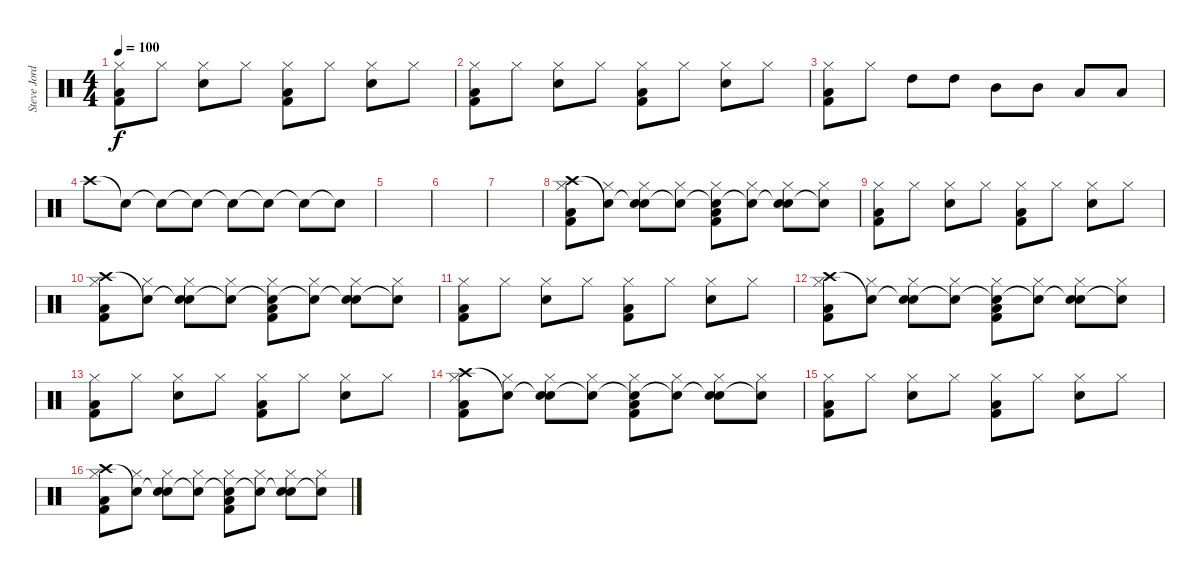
\track ("Steve Jordan" "Steve Jord") {instrument percussion}
\staff {score}
\articulation defaults
\ts (4 4)
\tempo 100
\clef neutral
\ks c
("Hi-Hat (closed)" "Low Floor Tom (hit)" "Kick (hit) 2").8{dy f} "Hi-Hat (closed)".8 ("Hi-Hat (closed)" "Snare (hit) 2").8 "Hi-Hat (closed)".8 ("Hi-Hat (closed)" "Low Floor Tom (hit)" "Kick (hit) 2").8 "Hi-Hat (closed)".8 ("Hi-Hat (closed)" "Snare (hit) 2").8 "Hi-Hat (closed)".8 |
("Hi-Hat (closed)" "Low Floor Tom (hit)" "Kick (hit) 2").8 "Hi-Hat (closed)".8 ("Hi-Hat (closed)" "Snare (hit) 2").8 "Hi-Hat (closed)".8 ("Hi-Hat (closed)" "Low Floor Tom (hit)" "Kick (hit) 2").8 "Hi-Hat (closed)".8 ("Hi-Hat (closed)" "Snare (hit) 2").8 "Hi-Hat (closed)".8 |
("Hi-Hat (closed)" "Low Floor Tom (hit)" "Kick (hit) 2").8 "Hi-Hat (closed)".8 "High Tom (hit)".8 "High Tom (hit)".8 "Mid Tom (hit)".8 "Mid Tom (hit)".8 "Low Tom (hit)".8 "Low Tom (hit)".8 |
"Crash high (hit)".8 "Snare (hit)"{t}.8 "Snare (hit)"{t}.8 "Snare (hit)"{t}.8 "Snare (hit)"{t}.8 "Snare (hit)"{t}.8 "Snare (hit)"{t}.8 "Snare (hit)"{t}.8 |
|
|
|
("Crash high (hit)" "Hi-Hat (closed)" "Low Floor Tom (hit)" "Kick (hit) 2").8 ("Snare (hit)"{t} "Hi-Hat (closed)").8 ("Snare (hit)"{t} "Hi-Hat (closed)" "Snare (hit) 2").8 ("Snare (hit)"{t} "Hi-Hat (closed)").8 ("Snare (hit)"{t} "Hi-Hat (closed)" "Low Floor Tom (hit)" "Kick (hit) 2").8 ("Snare (hit)"{t} "Hi-Hat (closed)").8 ("Snare (hit)"{t} "Hi-Hat (closed)" "Snare (hit) 2").8 ("Snare (hit)"{t} "Hi-Hat (closed)").8 |
("Hi-Hat (closed)" "Low Floor Tom (hit)" "Kick (hit) 2").8 "Hi-Hat (closed)".8 ("Hi-Hat (closed)" "Snare (hit) 2").8 "Hi-Hat (closed)".8 ("Hi-Hat (closed)" "Low Floor Tom (hit)" "Kick (hit) 2").8 "Hi-Hat (closed)".8 ("Hi-Hat (closed)" "Snare (hit) 2").8 "Hi-Hat (closed)".8 |
("Crash high (hit)" "Hi-Hat (closed)" "Low Floor Tom (hit)" "Kick (hit) 2").8 ("Snare (hit)"{t} "Hi-Hat (closed)").8 ("Snare (hit)"{t} "Hi-Hat (closed)" "Snare (hit) 2").8 ("Snare (hit)"{t} "Hi-Hat (closed)").8 ("Snare (hit)"{t} "Hi-Hat (closed)" "Low Floor Tom (hit)" "Kick (hit) 2").8 ("Snare (hit)"{t} "Hi-Hat (closed)").8 ("Snare (hit)"{t} "Hi-Hat (closed)" "Snare (hit) 2").8 ("Snare (hit)"{t} "Hi-Hat (closed)").8 |
("Hi-Hat (closed)" "Low Floor Tom (hit)" "Kick (hit) 2").8 "Hi-Hat (closed)".8 ("Hi-Hat (closed)" "Snare (hit) 2").8 "Hi-Hat (closed)".8 ("Hi-Hat (closed)" "Low Floor Tom (hit)" "Kick (hit) 2").8 "Hi-Hat (closed)".8 ("Hi-Hat (closed)" "Snare (hit) 2").8 "Hi-Hat (closed)".8 |
("Crash high (hit)" "Hi-Hat (closed)" "Low Floor Tom (hit)" "Kick (hit) 2").8 ("Snare (hit)"{t} "Hi-Hat (closed)").8 ("Snare (hit)"{t} "Hi-Hat (closed)" "Snare (hit) 2").8 ("Snare (hit)"{t} "Hi-Hat (closed)").8 ("Snare (hit)"{t} "Hi-Hat (closed)" "Low Floor Tom (hit)" "Kick (hit) 2").8 ("Snare (hit)"{t} "Hi-Hat (closed)").8 ("Snare (hit)"{t} "Hi-Hat (closed)" "Snare (hit) 2").8 ("Snare (hit)"{t} "Hi-Hat (closed)").8 |
("Hi-Hat (closed)" "Low Floor Tom (hit)" "Kick (hit) 2").8 "Hi-Hat (closed)".8 ("Hi-Hat (closed)" "Snare (hit) 2").8 "Hi-Hat (closed)".8 ("Hi-Hat (closed)" "Low Floor Tom (hit)" "Kick (hit) 2").8 "Hi-Hat (closed)".8 ("Hi-Hat (closed)" "Snare (hit) 2").8 "Hi-Hat (closed)".8 |
("Crash high (hit)" "Hi-Hat (closed)" "Low Floor Tom (hit)" "Kick (hit) 2").8 ("Snare (hit)"{t} "Hi-Hat (closed)").8 ("Snare (hit)"{t} "Hi-Hat (closed)" "Snare (hit) 2").8 ("Snare (hit)"{t} "Hi-Hat (closed)").8 ("Snare (hit)"{t} "Hi-Hat (closed)" "Low Floor Tom (hit)" "Kick (hit) 2").8 ("Snare (hit)"{t} "Hi-Hat (closed)").8 ("Snare (hit)"{t} "Hi-Hat (closed)" "Snare (hit) 2").8 ("Snare (hit)"{t} "Hi-Hat (closed)").8 |
("Hi-Hat (closed)" "Low Floor Tom (hit)" "Kick (hit) 2").8 "Hi-Hat (closed)".8 ("Hi-Hat (closed)" "Snare (hit) 2").8 "Hi-Hat (closed)".8 ("Hi-Hat (closed)" "Low Floor Tom (hit)" "Kick (hit) 2").8 "Hi-Hat (closed)".8 ("Hi-Hat (closed)" "Snare (hit) 2").8 "Hi-Hat (closed)".8 |
("Crash high (hit)" "Hi-Hat (closed)" "Low Floor Tom (hit)" "Kick (hit) 2").8 ("Snare (hit)"{t} "Hi-Hat (closed)").8 ("Snare (hit)"{t} "Hi-Hat (closed)" "Snare (hit) 2").8 ("Snare (hit)"{t} "Hi-Hat (closed)").8 ("Snare (hit)"{t} "Hi-Hat (closed)" "Low Floor Tom (hit)" "Kick (hit) 2").8 ("Snare (hit)"{t} "Hi-Hat (closed)").8 ("Snare (hit)"{t} "Hi-Hat (closed)" "Snare (hit) 2").8 ("Snare (hit)"{t} "Hi-Hat (closed)").8
